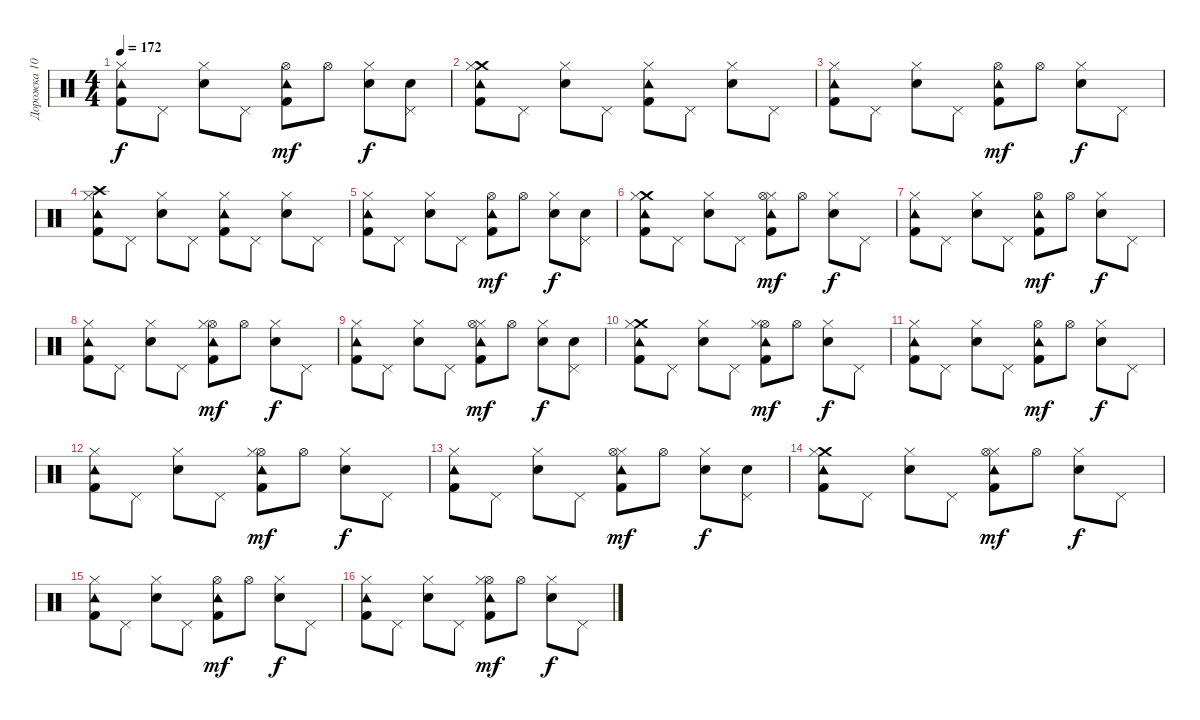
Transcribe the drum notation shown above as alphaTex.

\track ("Дорожка 10" "Дорожка 10") {instrument percussion}
\staff {score}
\articulation defaults
\ts (4 4)
\tempo 172
\clef neutral
\ks c
("Tambourine (hit)" "Kick (hit) 2" "Hi-Hat (closed)").8{dy f} "Pedal Hi-Hat (hit)".8 ("Snare (hit) 2" "Hi-Hat (closed)").8 "Pedal Hi-Hat (hit)".8 ("Tambourine (hit)" "Kick (hit) 2" "Hi-Hat (open)").8{dy mf} "Hi-Hat (open)".8 ("Hi-Hat (closed)" "Snare (hit) 2").8{dy f} ("Snare (hit) 2" "Pedal Hi-Hat (hit)").8 |
("Crash medium (hit)" "Tambourine (hit)" "Hi-Hat (closed)" "Kick (hit) 2").8 "Pedal Hi-Hat (hit)".8 ("Snare (hit) 2" "Hi-Hat (closed)").8 "Pedal Hi-Hat (hit)".8 ("Kick (hit) 2" "Tambourine (hit)" "Hi-Hat (closed)").8 "Pedal Hi-Hat (hit)".8 ("Hi-Hat (closed)" "Snare (hit) 2").8 "Pedal Hi-Hat (hit)".8 |
("Tambourine (hit)" "Hi-Hat (closed)" "Kick (hit) 2").8 "Pedal Hi-Hat (hit)".8 ("Snare (hit) 2" "Hi-Hat (closed)").8 "Pedal Hi-Hat (hit)".8 ("Tambourine (hit)" "Kick (hit) 2" "Hi-Hat (open)").8{dy mf} "Hi-Hat (open)".8 ("Hi-Hat (closed)" "Snare (hit) 2").8{dy f} "Pedal Hi-Hat (hit)".8 |
("Tambourine (hit)" "Hi-Hat (closed)" "Kick (hit) 2" "Crash high (hit)").8 "Pedal Hi-Hat (hit)".8 ("Hi-Hat (closed)" "Snare (hit) 2").8 "Pedal Hi-Hat (hit)".8 ("Hi-Hat (closed)" "Tambourine (hit)" "Kick (hit) 2").8 "Pedal Hi-Hat (hit)".8 ("Snare (hit) 2" "Hi-Hat (closed)").8 "Pedal Hi-Hat (hit)".8 |
("Hi-Hat (closed)" "Kick (hit) 2" "Tambourine (hit)").8 "Pedal Hi-Hat (hit)".8 ("Snare (hit) 2" "Hi-Hat (closed)").8 "Pedal Hi-Hat (hit)".8 ("Hi-Hat (open)" "Kick (hit) 2" "Tambourine (hit)").8{dy mf} "Hi-Hat (open)".8 ("Snare (hit) 2" "Hi-Hat (closed)").8{dy f} ("Pedal Hi-Hat (hit)" "Snare (hit) 2").8 |
("Crash medium (hit)" "Hi-Hat (closed)" "Kick (hit) 2" "Tambourine (hit)").8 "Pedal Hi-Hat (hit)".8 ("Snare (hit) 2" "Hi-Hat (closed)").8 "Pedal Hi-Hat (hit)".8 ("Hi-Hat (closed)" "Kick (hit) 2" "Tambourine (hit)" "Hi-Hat (open)").8{dy mf} "Hi-Hat (open)".8 ("Hi-Hat (closed)" "Snare (hit) 2").8{dy f} "Pedal Hi-Hat (hit)".8 |
("Kick (hit) 2" "Tambourine (hit)" "Hi-Hat (closed)").8 "Pedal Hi-Hat (hit)".8 ("Hi-Hat (closed)" "Snare (hit) 2").8 "Pedal Hi-Hat (hit)".8 ("Kick (hit) 2" "Tambourine (hit)" "Hi-Hat (open)").8{dy mf} "Hi-Hat (open)".8 ("Hi-Hat (closed)" "Snare (hit) 2").8{dy f} "Pedal Hi-Hat (hit)".8 |
("Kick (hit) 2" "Hi-Hat (closed)" "Tambourine (hit)").8 "Pedal Hi-Hat (hit)".8 ("Snare (hit) 2" "Hi-Hat (closed)").8 "Pedal Hi-Hat (hit)".8 ("Kick (hit) 2" "Hi-Hat (open)" "Tambourine (hit)" "Hi-Hat (closed)").8{dy mf} "Hi-Hat (open)".8 ("Hi-Hat (closed)" "Snare (hit) 2").8{dy f} "Pedal Hi-Hat (hit)".8 |
("Kick (hit) 2" "Tambourine (hit)" "Hi-Hat (closed)").8 "Pedal Hi-Hat (hit)".8 ("Hi-Hat (closed)" "Snare (hit) 2").8 "Pedal Hi-Hat (hit)".8 ("Tambourine (hit)" "Hi-Hat (closed)" "Hi-Hat (open)" "Kick (hit) 2").8{dy mf} "Hi-Hat (open)".8 ("Hi-Hat (closed)" "Snare (hit) 2").8{dy f} ("Snare (hit) 2" "Pedal Hi-Hat (hit)").8 |
("Crash medium (hit)" "Tambourine (hit)" "Hi-Hat (closed)" "Kick (hit) 2").8 "Pedal Hi-Hat (hit)".8 ("Snare (hit) 2" "Hi-Hat (closed)").8 "Pedal Hi-Hat (hit)".8 ("Hi-Hat (open)" "Tambourine (hit)" "Kick (hit) 2" "Hi-Hat (closed)").8{dy mf} "Hi-Hat (open)".8 ("Hi-Hat (closed)" "Snare (hit) 2").8{dy f} "Pedal Hi-Hat (hit)".8 |
("Hi-Hat (closed)" "Kick (hit) 2" "Tambourine (hit)").8 "Pedal Hi-Hat (hit)".8 ("Snare (hit) 2" "Hi-Hat (closed)").8 "Pedal Hi-Hat (hit)".8 ("Tambourine (hit)" "Kick (hit) 2" "Hi-Hat (open)").8{dy mf} "Hi-Hat (open)".8 ("Hi-Hat (closed)" "Snare (hit) 2").8{dy f} "Pedal Hi-Hat (hit)".8 |
("Tambourine (hit)" "Hi-Hat (closed)" "Kick (hit) 2").8 "Pedal Hi-Hat (hit)".8 ("Hi-Hat (closed)" "Snare (hit) 2").8 "Pedal Hi-Hat (hit)".8 ("Hi-Hat (open)" "Tambourine (hit)" "Kick (hit) 2" "Hi-Hat (closed)").8{dy mf} "Hi-Hat (open)".8 ("Hi-Hat (closed)" "Snare (hit) 2").8{dy f} "Pedal Hi-Hat (hit)".8 |
("Tambourine (hit)" "Hi-Hat (closed)" "Kick (hit) 2").8 "Pedal Hi-Hat (hit)".8 ("Hi-Hat (closed)" "Snare (hit) 2").8 "Pedal Hi-Hat (hit)".8 ("Tambourine (hit)" "Hi-Hat (closed)" "Hi-Hat (open)" "Kick (hit) 2").8{dy mf} "Hi-Hat (open)".8 ("Hi-Hat (closed)" "Snare (hit) 2").8{dy f} ("Pedal Hi-Hat (hit)" "Snare (hit) 2").8 |
("Crash medium (hit)" "Hi-Hat (closed)" "Kick (hit) 2" "Tambourine (hit)").8 "Pedal Hi-Hat (hit)".8 ("Snare (hit) 2" "Hi-Hat (closed)").8 "Pedal Hi-Hat (hit)".8 ("Hi-Hat (closed)" "Kick (hit) 2" "Tambourine (hit)" "Hi-Hat (open)").8{dy mf} "Hi-Hat (open)".8 ("Snare (hit) 2" "Hi-Hat (closed)").8{dy f} "Pedal Hi-Hat (hit)".8 |
("Kick (hit) 2" "Tambourine (hit)" "Hi-Hat (closed)").8 "Pedal Hi-Hat (hit)".8 ("Hi-Hat (closed)" "Snare (hit) 2").8 "Pedal Hi-Hat (hit)".8 ("Kick (hit) 2" "Tambourine (hit)" "Hi-Hat (open)").8{dy mf} "Hi-Hat (open)".8 ("Snare (hit) 2" "Hi-Hat (closed)").8{dy f} "Pedal Hi-Hat (hit)".8 |
("Kick (hit) 2" "Hi-Hat (closed)" "Tambourine (hit)").8 "Pedal Hi-Hat (hit)".8 ("Snare (hit) 2" "Hi-Hat (closed)").8 "Pedal Hi-Hat (hit)".8 ("Kick (hit) 2" "Hi-Hat (open)" "Tambourine (hit)" "Hi-Hat (closed)").8{dy mf} "Hi-Hat (open)".8 ("Hi-Hat (closed)" "Snare (hit) 2").8{dy f} "Pedal Hi-Hat (hit)".8
